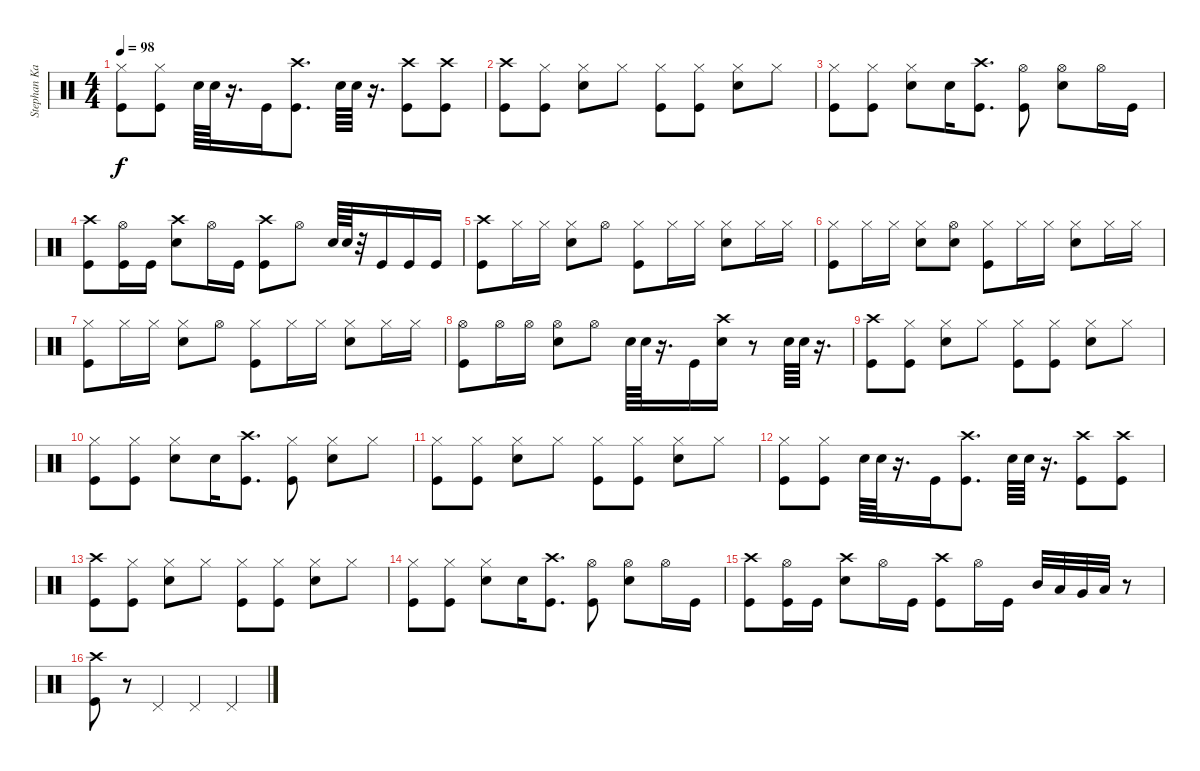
\track ("Stephan Kaufmann" "Stephan Ka") {instrument percussion}
\staff {score}
\articulation defaults
\ts (4 4)
\tempo 98
\clef neutral
\ks c
("Hi-Hat (closed)" "Kick (hit)").8{dy f} ("Hi-Hat (closed)" "Kick (hit)").8 "Snare (hit) 2".64 "Snare (hit) 2".64 r.16{d} "Kick (hit)".16 ("Crash high (hit)" "Kick (hit)").8{d} "Snare (hit) 2".64 "Snare (hit) 2".64 r.16{d} ("Crash high (hit)" "Kick (hit)").8 ("Crash high (hit)" "Kick (hit)").8 |
("Crash high (hit)" "Kick (hit)").8 ("Hi-Hat (closed)" "Kick (hit)").8 ("Hi-Hat (closed)" "Snare (hit) 2").8 "Hi-Hat (closed)".8 ("Hi-Hat (closed)" "Kick (hit)").8 ("Hi-Hat (closed)" "Kick (hit)").8 ("Hi-Hat (closed)" "Snare (hit) 2").8 "Hi-Hat (closed)".8 |
("Hi-Hat (closed)" "Kick (hit)").8 ("Hi-Hat (closed)" "Kick (hit)").8 ("Hi-Hat (closed)" "Snare (hit) 2").8 "Snare (hit) 2".16 ("Crash high (hit)" "Kick (hit)").8{d} ("Hi-Hat (open)" "Kick (hit)").8 ("Hi-Hat (open)" "Snare (hit) 2").8 "Hi-Hat (open)".16 "Kick (hit)".16 |
("Crash high (hit)" "Kick (hit)").8 ("Hi-Hat (open)" "Kick (hit)").16 "Kick (hit)".16 ("Crash high (hit)" "Snare (hit) 2").8 "Hi-Hat (open)".16 "Kick (hit)".16 ("Crash high (hit)" "Kick (hit)").8 "Hi-Hat (open)".8 "Snare (hit) 2".64 "Snare (hit) 2".64 r.32 "Kick (hit)".16 "Kick (hit)".16 "Kick (hit)".16 |
("Crash high (hit)" "Kick (hit)").8 "Hi-Hat (closed)".16 "Hi-Hat (closed)".16 ("Hi-Hat (closed)" "Snare (hit) 2").8 "Hi-Hat (open)".8 ("Hi-Hat (closed)" "Kick (hit)").8 "Hi-Hat (closed)".16 "Hi-Hat (closed)".16 ("Hi-Hat (closed)" "Snare (hit) 2").8 "Hi-Hat (closed)".16 "Hi-Hat (closed)".16 |
("Hi-Hat (closed)" "Kick (hit)").8 "Hi-Hat (closed)".16 "Hi-Hat (closed)".16 ("Hi-Hat (closed)" "Snare (hit) 2").8 ("Hi-Hat (open)" "Snare (hit) 2").8 ("Hi-Hat (closed)" "Kick (hit)").8 "Hi-Hat (closed)".16 "Hi-Hat (closed)".16 ("Hi-Hat (closed)" "Snare (hit) 2").8 "Hi-Hat (closed)".16 "Hi-Hat (closed)".16 |
("Hi-Hat (closed)" "Kick (hit)").8 "Hi-Hat (closed)".16 "Hi-Hat (closed)".16 ("Hi-Hat (closed)" "Snare (hit) 2").8 "Hi-Hat (open)".8 ("Hi-Hat (closed)" "Kick (hit)").8 "Hi-Hat (closed)".16 "Hi-Hat (closed)".16 ("Hi-Hat (closed)" "Snare (hit) 2").8 "Hi-Hat (closed)".16 "Hi-Hat (closed)".16 |
("Hi-Hat (open)" "Kick (hit)").8 "Hi-Hat (open)".16 "Hi-Hat (open)".16 ("Hi-Hat (open)" "Snare (hit) 2").8 "Hi-Hat (open)".8 "Snare (hit) 2".64 "Snare (hit) 2".64 r.16{d} "Kick (hit)".16 ("Crash high (hit)" "Snare (hit) 2").16 r.8 "Snare (hit) 2".64 "Snare (hit) 2".64 r.16{d} |
("Crash high (hit)" "Kick (hit)").8 ("Hi-Hat (closed)" "Kick (hit)").8 ("Hi-Hat (closed)" "Snare (hit) 2").8 "Hi-Hat (closed)".8 ("Hi-Hat (closed)" "Kick (hit)").8 ("Hi-Hat (closed)" "Kick (hit)").8 ("Hi-Hat (closed)" "Snare (hit) 2").8 "Hi-Hat (closed)".8 |
("Hi-Hat (closed)" "Kick (hit)").8 ("Hi-Hat (closed)" "Kick (hit)").8 ("Hi-Hat (closed)" "Snare (hit) 2").8 "Snare (hit) 2".16 ("Crash high (hit)" "Kick (hit)").8{d} ("Hi-Hat (closed)" "Kick (hit)").8 ("Hi-Hat (closed)" "Snare (hit) 2").8 "Hi-Hat (closed)".8 |
("Hi-Hat (closed)" "Kick (hit)").8 ("Hi-Hat (closed)" "Kick (hit)").8 ("Hi-Hat (closed)" "Snare (hit) 2").8 "Hi-Hat (closed)".8 ("Hi-Hat (closed)" "Kick (hit)").8 ("Hi-Hat (closed)" "Kick (hit)").8 ("Hi-Hat (closed)" "Snare (hit) 2").8 "Hi-Hat (closed)".8 |
("Hi-Hat (closed)" "Kick (hit)").8 ("Hi-Hat (closed)" "Kick (hit)").8 "Snare (hit) 2".64 "Snare (hit) 2".64 r.16{d} "Kick (hit)".16 ("Crash high (hit)" "Kick (hit)").8{d} "Snare (hit) 2".64 "Snare (hit) 2".64 r.16{d} ("Crash high (hit)" "Kick (hit)").8 ("Crash high (hit)" "Kick (hit)").8 |
("Crash high (hit)" "Kick (hit)").8 ("Hi-Hat (closed)" "Kick (hit)").8 ("Hi-Hat (closed)" "Snare (hit) 2").8 "Hi-Hat (closed)".8 ("Hi-Hat (closed)" "Kick (hit)").8 ("Hi-Hat (closed)" "Kick (hit)").8 ("Hi-Hat (closed)" "Snare (hit) 2").8 "Hi-Hat (closed)".8 |
("Hi-Hat (closed)" "Kick (hit)").8 ("Hi-Hat (closed)" "Kick (hit)").8 ("Hi-Hat (closed)" "Snare (hit) 2").8 "Snare (hit) 2".16 ("Crash high (hit)" "Kick (hit)").8{d} ("Hi-Hat (open)" "Kick (hit)").8 ("Hi-Hat (open)" "Snare (hit) 2").8 "Hi-Hat (open)".16 "Kick (hit)".16 |
("Crash high (hit)" "Kick (hit)").8 ("Hi-Hat (open)" "Kick (hit)").16 "Kick (hit)".16 ("Crash high (hit)" "Snare (hit) 2").8 "Hi-Hat (open)".16 "Kick (hit)".16 ("Crash high (hit)" "Kick (hit)").8 "Hi-Hat (open)".16 "Kick (hit)".16 "Mid Tom (hit)".32 "Low Tom (hit)".32 "Very Low Tom (hit)".32 "Low Floor Tom (hit)".32 r.8 |
("Crash high (hit)" "Kick (hit)").8 r.8 "Pedal Hi-Hat (hit)".4 "Pedal Hi-Hat (hit)".4 "Pedal Hi-Hat (hit)".4
